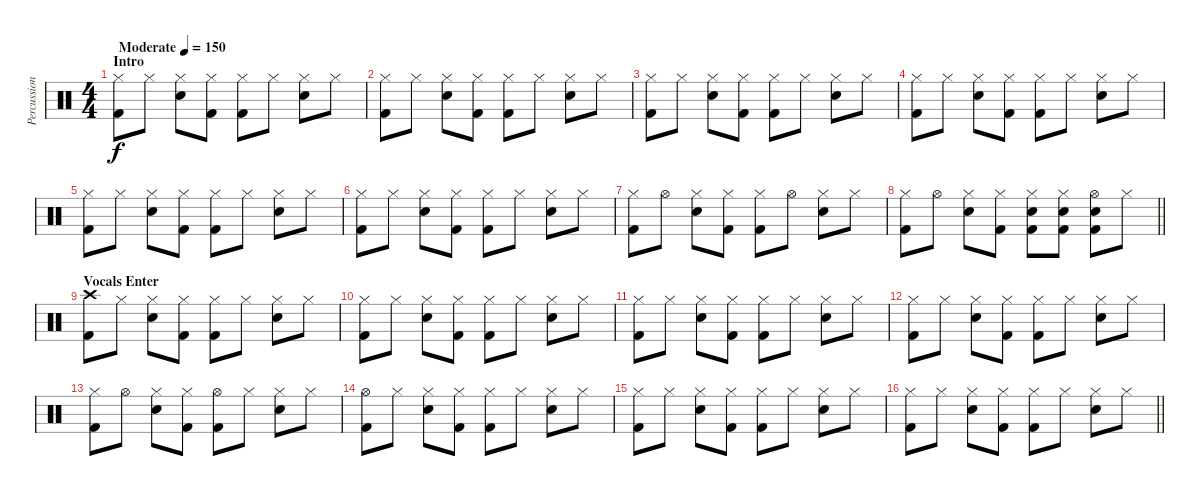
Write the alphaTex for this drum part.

\track ("Percussion" "Percussion") {instrument percussion}
\staff {score}
\articulation defaults
\ts (4 4)
\section ("" "Intro")
\tempo (150 "Moderate")
\clef neutral
\ks c
("Hi-Hat (closed)" "Kick (hit) 2").8{dy f} "Hi-Hat (closed)".8 ("Hi-Hat (closed)" "Electric Snare (hit)").8 ("Hi-Hat (closed)" "Kick (hit) 2").8 ("Hi-Hat (closed)" "Kick (hit) 2").8 "Hi-Hat (closed)".8 ("Hi-Hat (closed)" "Electric Snare (hit)").8 "Hi-Hat (closed)".8 |
("Hi-Hat (closed)" "Kick (hit) 2").8 "Hi-Hat (closed)".8 ("Hi-Hat (closed)" "Electric Snare (hit)").8 ("Hi-Hat (closed)" "Kick (hit) 2").8 ("Hi-Hat (closed)" "Kick (hit) 2").8 "Hi-Hat (closed)".8 ("Hi-Hat (closed)" "Electric Snare (hit)").8 "Hi-Hat (closed)".8 |
("Hi-Hat (closed)" "Kick (hit) 2").8 "Hi-Hat (closed)".8 ("Hi-Hat (closed)" "Electric Snare (hit)").8 ("Hi-Hat (closed)" "Kick (hit) 2").8 ("Hi-Hat (closed)" "Kick (hit) 2").8 "Hi-Hat (closed)".8 ("Hi-Hat (closed)" "Electric Snare (hit)").8 "Hi-Hat (closed)".8 |
("Hi-Hat (closed)" "Kick (hit) 2").8 "Hi-Hat (closed)".8 ("Hi-Hat (closed)" "Electric Snare (hit)").8 ("Hi-Hat (closed)" "Kick (hit) 2").8 ("Hi-Hat (closed)" "Kick (hit) 2").8 "Hi-Hat (closed)".8 ("Hi-Hat (closed)" "Electric Snare (hit)").8 "Hi-Hat (closed)".8 |
("Hi-Hat (closed)" "Kick (hit) 2").8 "Hi-Hat (closed)".8 ("Hi-Hat (closed)" "Electric Snare (hit)").8 ("Hi-Hat (closed)" "Kick (hit) 2").8 ("Hi-Hat (closed)" "Kick (hit) 2").8 "Hi-Hat (closed)".8 ("Hi-Hat (closed)" "Electric Snare (hit)").8 "Hi-Hat (closed)".8 |
("Hi-Hat (closed)" "Kick (hit) 2").8 "Hi-Hat (closed)".8 ("Hi-Hat (closed)" "Electric Snare (hit)").8 ("Hi-Hat (closed)" "Kick (hit) 2").8 ("Hi-Hat (closed)" "Kick (hit) 2").8 "Hi-Hat (closed)".8 ("Hi-Hat (closed)" "Electric Snare (hit)").8 "Hi-Hat (closed)".8 |
("Hi-Hat (closed)" "Kick (hit) 2").8 "Hi-Hat (open)".8 ("Hi-Hat (closed)" "Electric Snare (hit)").8 ("Hi-Hat (closed)" "Kick (hit) 2").8 ("Hi-Hat (closed)" "Kick (hit) 2").8 "Hi-Hat (open)".8 ("Hi-Hat (closed)" "Electric Snare (hit)").8 "Hi-Hat (closed)".8 |
\barLineRight lightlight
("Hi-Hat (closed)" "Kick (hit) 2").8 "Hi-Hat (open)".8 ("Hi-Hat (closed)" "Electric Snare (hit)").8 ("Hi-Hat (closed)" "Kick (hit) 2").8 ("Hi-Hat (closed)" "Electric Snare (hit)" "Kick (hit) 2").8 ("Hi-Hat (closed)" "Electric Snare (hit)" "Kick (hit) 2").8 ("Hi-Hat (open)" "Electric Snare (hit)" "Kick (hit) 2").8 "Hi-Hat (closed)".8 |
\section ("" "Vocals Enter")
("Crash high (hit)" "Kick (hit) 2").8 "Hi-Hat (closed)".8 ("Hi-Hat (closed)" "Electric Snare (hit)").8 ("Hi-Hat (closed)" "Kick (hit) 2").8 ("Hi-Hat (closed)" "Kick (hit) 2").8 "Hi-Hat (closed)".8 ("Hi-Hat (closed)" "Electric Snare (hit)").8 "Hi-Hat (closed)".8 |
("Hi-Hat (closed)" "Kick (hit) 2").8 "Hi-Hat (closed)".8 ("Hi-Hat (closed)" "Electric Snare (hit)").8 ("Hi-Hat (closed)" "Kick (hit) 2").8 ("Hi-Hat (closed)" "Kick (hit) 2").8 "Hi-Hat (closed)".8 ("Hi-Hat (closed)" "Electric Snare (hit)").8 "Hi-Hat (closed)".8 |
("Hi-Hat (closed)" "Kick (hit) 2").8 "Hi-Hat (closed)".8 ("Hi-Hat (closed)" "Electric Snare (hit)").8 ("Hi-Hat (closed)" "Kick (hit) 2").8 ("Hi-Hat (closed)" "Kick (hit) 2").8 "Hi-Hat (closed)".8 ("Hi-Hat (closed)" "Electric Snare (hit)").8 "Hi-Hat (closed)".8 |
("Hi-Hat (closed)" "Kick (hit) 2").8 "Hi-Hat (closed)".8 ("Hi-Hat (closed)" "Electric Snare (hit)").8 ("Hi-Hat (closed)" "Kick (hit) 2").8 ("Hi-Hat (closed)" "Kick (hit) 2").8 "Hi-Hat (closed)".8 ("Hi-Hat (closed)" "Electric Snare (hit)").8 "Hi-Hat (closed)".8 |
("Hi-Hat (closed)" "Kick (hit) 2").8 "Hi-Hat (open)".8 ("Hi-Hat (closed)" "Electric Snare (hit)").8 ("Hi-Hat (closed)" "Kick (hit) 2").8 ("Hi-Hat (open)" "Kick (hit) 2").8 "Hi-Hat (closed)".8 ("Hi-Hat (closed)" "Electric Snare (hit)").8 "Hi-Hat (closed)".8 |
("Hi-Hat (open)" "Kick (hit) 2").8 "Hi-Hat (closed)".8 ("Hi-Hat (closed)" "Electric Snare (hit)").8 ("Hi-Hat (closed)" "Kick (hit) 2").8 ("Hi-Hat (closed)" "Kick (hit) 2").8 "Hi-Hat (closed)".8 ("Hi-Hat (closed)" "Electric Snare (hit)").8 "Hi-Hat (closed)".8 |
("Hi-Hat (closed)" "Kick (hit) 2").8 "Hi-Hat (closed)".8 ("Hi-Hat (closed)" "Electric Snare (hit)").8 ("Hi-Hat (closed)" "Kick (hit) 2").8 ("Hi-Hat (closed)" "Kick (hit) 2").8 "Hi-Hat (closed)".8 ("Hi-Hat (closed)" "Electric Snare (hit)").8 "Hi-Hat (closed)".8 |
\barLineRight lightlight
("Hi-Hat (closed)" "Kick (hit) 2").8 "Hi-Hat (closed)".8 ("Hi-Hat (closed)" "Electric Snare (hit)").8 ("Hi-Hat (closed)" "Kick (hit) 2").8 ("Hi-Hat (closed)" "Kick (hit) 2").8 "Hi-Hat (closed)".8 ("Hi-Hat (closed)" "Electric Snare (hit)").8 "Hi-Hat (closed)".8
